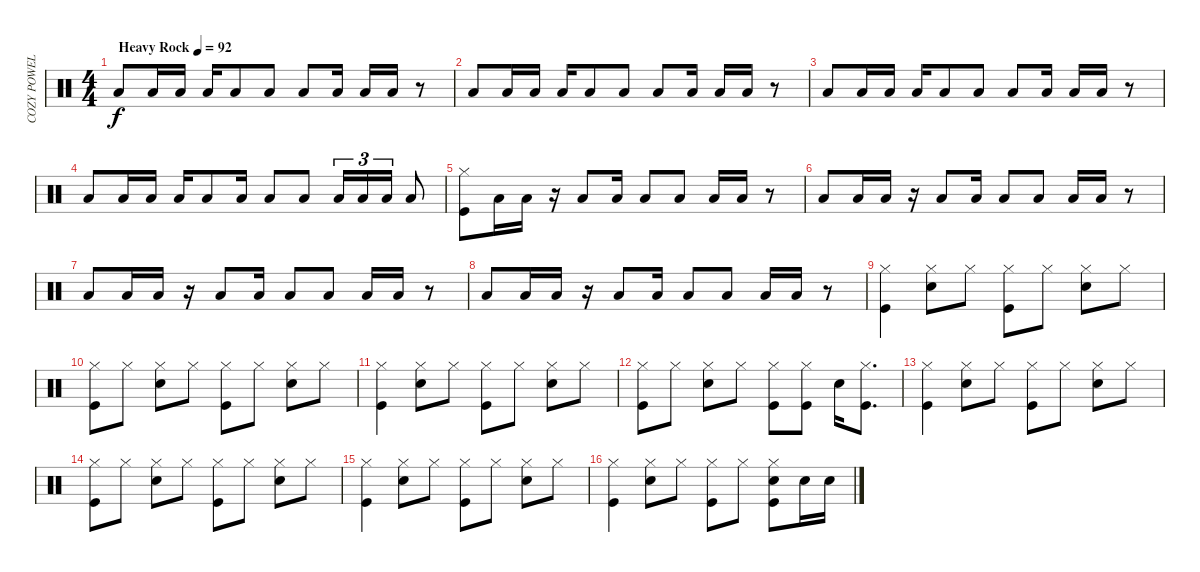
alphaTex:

\track ("COZY POWELL" "COZY POWEL") {instrument percussion}
\staff {score}
\articulation defaults
\ts (4 4)
\tempo (92 "Heavy Rock")
\clef neutral
\ks c "Low Tom (hit)".8{dy f} "Low Tom (hit)".16 "Low Tom (hit)".16 "Low Tom (hit)".16 "Low Tom (hit)".8 "Low Tom (hit)".8 "Low Tom (hit)".8 "Low Tom (hit)".16 "Low Tom (hit)".16 "Low Tom (hit)".16
r.8 |
"Low Tom (hit)".8 "Low Tom (hit)".16 "Low Tom (hit)".16 "Low Tom (hit)".16 "Low Tom (hit)".8 "Low Tom (hit)".8 "Low Tom (hit)".8 "Low Tom (hit)".16 "Low Tom (hit)".16 "Low Tom (hit)".16 r.8 |
"Low Tom (hit)".8 "Low Tom (hit)".16 "Low Tom (hit)".16 "Low Tom (hit)".16 "Low Tom (hit)".8 "Low Tom (hit)".8 "Low Tom (hit)".8 "Low Tom (hit)".16 "Low Tom (hit)".16 "Low Tom (hit)".16 r.8 |
"Low Tom (hit)".8 "Low Tom (hit)".16 "Low Tom (hit)".16 "Low Tom (hit)".16 "Low Tom (hit)".8 "Low Tom (hit)".16 "Low Tom (hit)".8 "Low Tom (hit)".8 "Low Tom (hit)".16{tu (3 2)} "Low Tom (hit)".16{tu (3 2)} "Low Tom (hit)".16{tu (3 2)} "Low Tom (hit)".8 |
("Hi-Hat (closed)" "Kick (hit)").8 "Low Tom (hit)".16 "Low Tom (hit)".16 r.16 "Low Tom (hit)".8 "Low Tom (hit)".16 "Low Tom (hit)".8 "Low Tom (hit)".8 "Low Tom (hit)".16 "Low Tom (hit)".16 r.8 |
"Low Tom (hit)".8 "Low Tom (hit)".16 "Low Tom (hit)".16 r.16 "Low Tom (hit)".8 "Low Tom (hit)".16 "Low Tom (hit)".8 "Low Tom (hit)".8 "Low Tom (hit)".16 "Low Tom (hit)".16 r.8 |
"Low Tom (hit)".8 "Low Tom (hit)".16 "Low Tom (hit)".16 r.16 "Low Tom (hit)".8 "Low Tom (hit)".16 "Low Tom (hit)".8 "Low Tom (hit)".8 "Low Tom (hit)".16 "Low Tom (hit)".16 r.8 |
"Low Tom (hit)".8 "Low Tom (hit)".16 "Low Tom (hit)".16 r.16 "Low Tom (hit)".8 "Low Tom (hit)".16 "Low Tom (hit)".8 "Low Tom (hit)".8 "Low Tom (hit)".16 "Low Tom (hit)".16 r.8 |
("Hi-Hat (closed)" "Kick (hit)").4 ("Hi-Hat (closed)" "Snare (hit) 2").8 "Hi-Hat (closed)".8 ("Hi-Hat (closed)" "Kick (hit)").8 "Hi-Hat (closed)".8 ("Hi-Hat (closed)" "Snare (hit) 2").8 "Hi-Hat (closed)".8 |
("Hi-Hat (closed)" "Kick (hit)").8 "Hi-Hat (closed)".8 ("Hi-Hat (closed)" "Snare (hit) 2").8 "Hi-Hat (closed)".8 ("Hi-Hat (closed)" "Kick (hit)").8 "Hi-Hat (closed)".8 ("Hi-Hat (closed)" "Snare (hit) 2").8 "Hi-Hat (closed)".8 |
("Hi-Hat (closed)" "Kick (hit)").4 ("Hi-Hat (closed)" "Snare (hit) 2").8 "Hi-Hat (closed)".8 ("Hi-Hat (closed)" "Kick (hit)").8 "Hi-Hat (closed)".8 ("Hi-Hat (closed)" "Snare (hit) 2").8 "Hi-Hat (closed)".8 |
("Hi-Hat (closed)" "Kick (hit)").8 "Hi-Hat (closed)".8 ("Hi-Hat (closed)" "Snare (hit) 2").8 "Hi-Hat (closed)".8 ("Hi-Hat (closed)" "Kick (hit)").8 ("Hi-Hat (closed)" "Kick (hit)").8 "Snare (hit) 2".16 ("Hi-Hat (closed)" "Kick (hit)").8{d} |
("Hi-Hat (closed)" "Kick (hit)").4 ("Hi-Hat (closed)" "Snare (hit) 2").8 "Hi-Hat (closed)".8 ("Hi-Hat (closed)" "Kick (hit)").8 "Hi-Hat (closed)".8 ("Hi-Hat (closed)" "Snare (hit) 2").8 "Hi-Hat (closed)".8 |
("Hi-Hat (closed)" "Kick (hit)").8 "Hi-Hat (closed)".8 ("Hi-Hat (closed)" "Snare (hit) 2").8 "Hi-Hat (closed)".8 ("Hi-Hat (closed)" "Kick (hit)").8 "Hi-Hat (closed)".8 ("Hi-Hat (closed)" "Snare (hit) 2").8 "Hi-Hat (closed)".8 |
("Hi-Hat (closed)" "Kick (hit)").4 ("Hi-Hat (closed)" "Snare (hit) 2").8 "Hi-Hat (closed)".8 ("Hi-Hat (closed)" "Kick (hit)").8 "Hi-Hat (closed)".8 ("Hi-Hat (closed)" "Snare (hit) 2").8 "Hi-Hat (closed)".8 |
("Hi-Hat (closed)" "Kick (hit)").4 ("Hi-Hat (closed)" "Snare (hit) 2").8 "Hi-Hat (closed)".8 ("Hi-Hat (closed)" "Kick (hit)").8 "Hi-Hat (closed)".8 ("Hi-Hat (closed)" "Snare (hit) 2" "Kick (hit)").8 "Snare (hit) 2".16 "Snare (hit) 2".16
